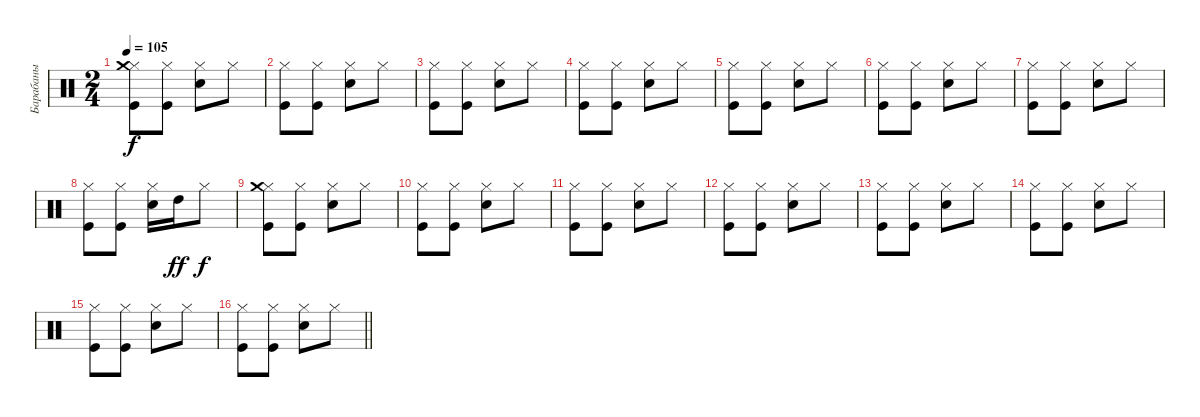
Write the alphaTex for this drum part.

\track ("Барабаны" "Барабаны") {instrument percussion}
\staff {score}
\articulation defaults
\ts (2 4)
\tempo 105
\clef neutral
\ks c
("Kick (hit)" "Hi-Hat (closed)" "Crash medium (hit)").8{dy f} ("Kick (hit)" "Hi-Hat (closed)").8 ("Snare (hit) 2" "Hi-Hat (closed)").8 "Hi-Hat (closed)".8 |
("Kick (hit)" "Hi-Hat (closed)").8 ("Kick (hit)" "Hi-Hat (closed)").8 ("Snare (hit) 2" "Hi-Hat (closed)").8 "Hi-Hat (closed)".8 |
("Kick (hit)" "Hi-Hat (closed)").8 ("Kick (hit)" "Hi-Hat (closed)").8 ("Snare (hit) 2" "Hi-Hat (closed)").8 "Hi-Hat (closed)".8 |
("Kick (hit)" "Hi-Hat (closed)").8 ("Kick (hit)" "Hi-Hat (closed)").8 ("Snare (hit) 2" "Hi-Hat (closed)").8 "Hi-Hat (closed)".8 |
("Kick (hit)" "Hi-Hat (closed)").8 ("Kick (hit)" "Hi-Hat (closed)").8 ("Snare (hit) 2" "Hi-Hat (closed)").8 "Hi-Hat (closed)".8 |
("Kick (hit)" "Hi-Hat (closed)").8 ("Kick (hit)" "Hi-Hat (closed)").8 ("Snare (hit) 2" "Hi-Hat (closed)").8 "Hi-Hat (closed)".8 |
("Kick (hit)" "Hi-Hat (closed)").8 ("Kick (hit)" "Hi-Hat (closed)").8 ("Snare (hit) 2" "Hi-Hat (closed)").8 "Hi-Hat (closed)".8 |
("Kick (hit)" "Hi-Hat (closed)").8 ("Kick (hit)" "Hi-Hat (closed)").8 ("Snare (hit) 2" "Hi-Hat (closed)").16 "High Tom (hit)".16{dy ff} "Hi-Hat (closed)".8{dy f} |
("Kick (hit)" "Hi-Hat (closed)" "Crash medium (hit)").8 ("Kick (hit)" "Hi-Hat (closed)").8 ("Snare (hit) 2" "Hi-Hat (closed)").8 "Hi-Hat (closed)".8 |
("Kick (hit)" "Hi-Hat (closed)").8 ("Kick (hit)" "Hi-Hat (closed)").8 ("Snare (hit) 2" "Hi-Hat (closed)").8 "Hi-Hat (closed)".8 |
("Kick (hit)" "Hi-Hat (closed)").8 ("Kick (hit)" "Hi-Hat (closed)").8 ("Snare (hit) 2" "Hi-Hat (closed)").8 "Hi-Hat (closed)".8 |
("Kick (hit)" "Hi-Hat (closed)").8 ("Kick (hit)" "Hi-Hat (closed)").8 ("Snare (hit) 2" "Hi-Hat (closed)").8 "Hi-Hat (closed)".8 |
("Kick (hit)" "Hi-Hat (closed)").8 ("Kick (hit)" "Hi-Hat (closed)").8 ("Snare (hit) 2" "Hi-Hat (closed)").8 "Hi-Hat (closed)".8 |
("Kick (hit)" "Hi-Hat (closed)").8 ("Kick (hit)" "Hi-Hat (closed)").8 ("Snare (hit) 2" "Hi-Hat (closed)").8 "Hi-Hat (closed)".8 |
("Kick (hit)" "Hi-Hat (closed)").8 ("Kick (hit)" "Hi-Hat (closed)").8 ("Snare (hit) 2" "Hi-Hat (closed)").8 "Hi-Hat (closed)".8 |
\barLineRight lightlight
("Kick (hit)" "Hi-Hat (closed)").8 ("Kick (hit)" "Hi-Hat (closed)").8 ("Snare (hit) 2" "Hi-Hat (closed)").8 "Hi-Hat (closed)".8
